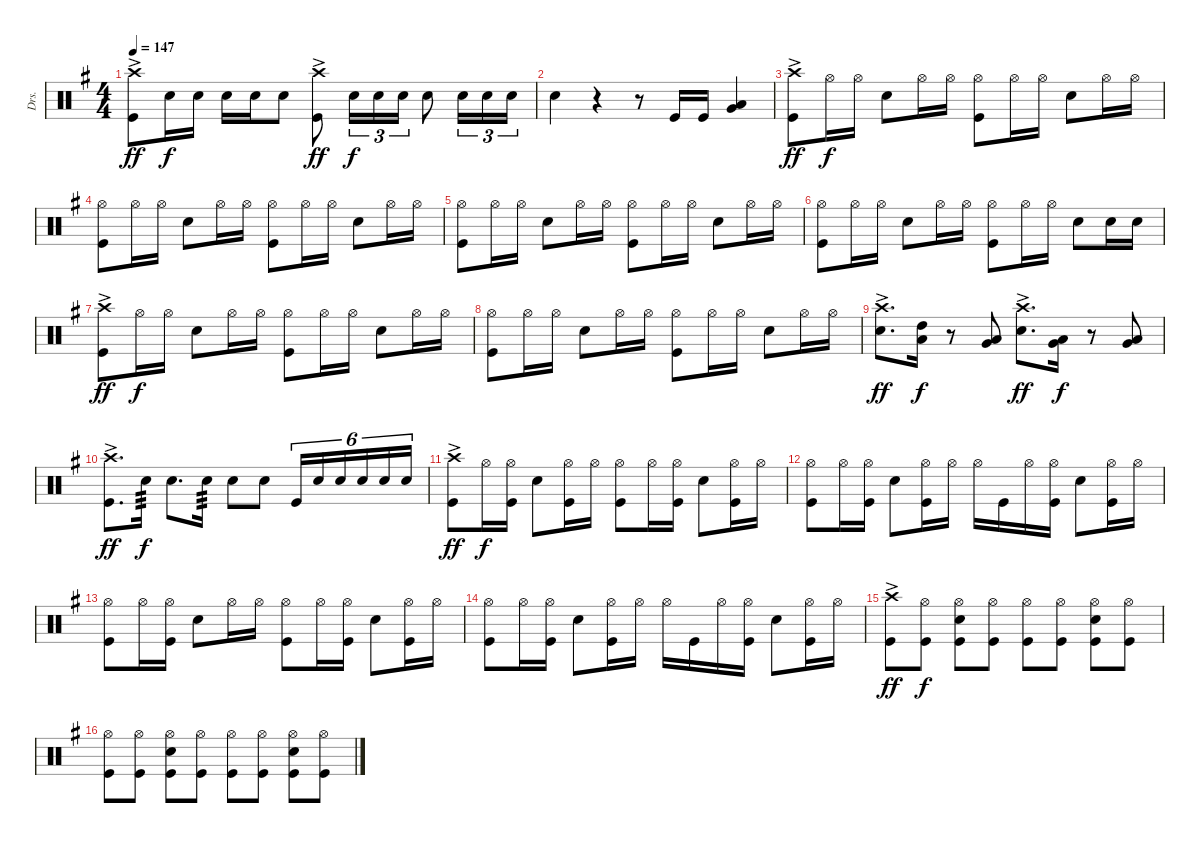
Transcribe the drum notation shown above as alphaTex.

\track ("Drs." "Drs.") {instrument percussion}
\staff {score}
\articulation defaults
\ts (4 4)
\tempo 147
\clef neutral
\ks g
("Crash high (hit)"{ac} "Kick (hit)").8{dy ff} "Snare (hit) 2".16{dy f} "Snare (hit) 2".16 "Snare (hit) 2".16 "Snare (hit) 2".16 "Snare (hit) 2".8 ("Crash high (hit)"{ac} "Kick (hit)").8{dy ff} "Snare (hit) 2".16{tu (3 2) dy f} "Snare (hit) 2".16{tu (3 2)} "Snare (hit) 2".16{tu (3 2)} "Snare (hit) 2".8 "Snare (hit) 2".16{tu (3 2)} "Snare (hit) 2".16{tu (3 2)} "Snare (hit) 2".16{tu (3 2)} |
"Snare (hit) 2".4 r.4 r.8 "Kick (hit)".16 "Kick (hit)".16 ("Low Tom (hit)" "Very Low Tom (hit)").4 |
("Crash high (hit)"{ac} "Kick (hit)").8{dy ff} "Hi-Hat (open)".16{dy f} "Hi-Hat (open)".16 "Snare (hit) 2".8 "Hi-Hat (open)".16 "Hi-Hat (open)".16 ("Hi-Hat (open)" "Kick (hit)").8 "Hi-Hat (open)".16 "Hi-Hat (open)".16 "Snare (hit) 2".8 "Hi-Hat (open)".16 "Hi-Hat (open)".16 |
("Hi-Hat (open)" "Kick (hit)").8 "Hi-Hat (open)".16 "Hi-Hat (open)".16 "Snare (hit) 2".8 "Hi-Hat (open)".16 "Hi-Hat (open)".16 ("Hi-Hat (open)" "Kick (hit)").8 "Hi-Hat (open)".16 "Hi-Hat (open)".16 "Snare (hit) 2".8 "Hi-Hat (open)".16 "Hi-Hat (open)".16 |
("Hi-Hat (open)" "Kick (hit)").8 "Hi-Hat (open)".16 "Hi-Hat (open)".16 "Snare (hit) 2".8 "Hi-Hat (open)".16 "Hi-Hat (open)".16 ("Hi-Hat (open)" "Kick (hit)").8 "Hi-Hat (open)".16 "Hi-Hat (open)".16 "Snare (hit) 2".8 "Hi-Hat (open)".16 "Hi-Hat (open)".16 |
("Hi-Hat (open)" "Kick (hit)").8 "Hi-Hat (open)".16 "Hi-Hat (open)".16 "Snare (hit) 2".8 "Hi-Hat (open)".16 "Hi-Hat (open)".16 ("Hi-Hat (open)" "Kick (hit)").8 "Hi-Hat (open)".16 "Hi-Hat (open)".16 "Snare (hit) 2".8 "Snare (hit) 2".16 "Snare (hit) 2".16 |
("Crash high (hit)"{ac} "Kick (hit)").8{dy ff} "Hi-Hat (open)".16{dy f} "Hi-Hat (open)".16 "Snare (hit) 2".8 "Hi-Hat (open)".16 "Hi-Hat (open)".16 ("Hi-Hat (open)" "Kick (hit)").8 "Hi-Hat (open)".16 "Hi-Hat (open)".16 "Snare (hit) 2".8 "Hi-Hat (open)".16 "Hi-Hat (open)".16 |
("Hi-Hat (open)" "Kick (hit)").8 "Hi-Hat (open)".16 "Hi-Hat (open)".16 "Snare (hit) 2".8 "Hi-Hat (open)".16 "Hi-Hat (open)".16 ("Hi-Hat (open)" "Kick (hit)").8 "Hi-Hat (open)".16 "Hi-Hat (open)".16 "Snare (hit) 2".8 "Hi-Hat (open)".16 "Hi-Hat (open)".16 |
("Crash high (hit)"{ac} "Snare (hit) 2").8{d dy ff} ("High Tom (hit)" "Low Tom (hit)").16{dy f} r.8 ("Low Tom (hit)" "Very Low Tom (hit)").8 ("Crash high (hit)"{ac} "Snare (hit) 2").8{d dy ff} ("Low Tom (hit)" "Very Low Tom (hit)").16{dy f} r.8 ("Low Tom (hit)" "Very Low Tom (hit)").8 |
("Crash high (hit)"{ac} "Kick (hit)").8{d dy ff} "Snare (hit) 2".16{tp 3 dy f} "Snare (hit) 2".8{d} "Snare (hit) 2".16{tp 3} "Snare (hit) 2".8 "Snare (hit) 2".8 "Kick (hit)".16{tu (6 4)} "Snare (hit) 2".16{tu (6 4)} "Snare (hit) 2".16{tu (6 4)} "Snare (hit) 2".16{tu (6 4)} "Snare (hit) 2".16{tu (6 4)} "Snare (hit) 2".16{tu (6 4)} |
("Crash high (hit)"{ac} "Kick (hit)").8{dy ff} "Hi-Hat (open)".16{dy f} ("Hi-Hat (open)" "Kick (hit)").16 "Snare (hit) 2".8 ("Hi-Hat (open)" "Kick (hit)").16 "Hi-Hat (open)".16 ("Hi-Hat (open)" "Kick (hit)").8 "Hi-Hat (open)".16 ("Hi-Hat (open)" "Kick (hit)").16 "Snare (hit) 2".8 ("Hi-Hat (open)" "Kick (hit)").16 "Hi-Hat (open)".16 |
("Hi-Hat (open)" "Kick (hit)").8 "Hi-Hat (open)".16 ("Hi-Hat (open)" "Kick (hit)").16 "Snare (hit) 2".8 ("Hi-Hat (open)" "Kick (hit)").16 "Hi-Hat (open)".16 "Hi-Hat (open)".16 "Kick (hit)".16 "Hi-Hat (open)".16 ("Hi-Hat (open)" "Kick (hit)").16 "Snare (hit) 2".8 ("Hi-Hat (open)" "Kick (hit)").16 "Hi-Hat (open)".16 |
("Hi-Hat (open)" "Kick (hit)").8 "Hi-Hat (open)".16 ("Hi-Hat (open)" "Kick (hit)").16 "Snare (hit) 2".8 "Hi-Hat (open)".16 "Hi-Hat (open)".16 ("Hi-Hat (open)" "Kick (hit)").8 "Hi-Hat (open)".16 ("Hi-Hat (open)" "Kick (hit)").16 "Snare (hit) 2".8 ("Hi-Hat (open)" "Kick (hit)").16 "Hi-Hat (open)".16 |
("Hi-Hat (open)" "Kick (hit)").8 "Hi-Hat (open)".16 ("Hi-Hat (open)" "Kick (hit)").16 "Snare (hit) 2".8 ("Hi-Hat (open)" "Kick (hit)").16 "Hi-Hat (open)".16 "Hi-Hat (open)".16 "Kick (hit)".16 "Hi-Hat (open)".16 ("Hi-Hat (open)" "Kick (hit)").16 "Snare (hit) 2".8 ("Hi-Hat (open)" "Kick (hit)").16 "Hi-Hat (open)".16 |
("Crash high (hit)"{ac} "Kick (hit)").8{dy ff} ("Hi-Hat (open)" "Kick (hit)").8{dy f} ("Hi-Hat (open)" "Snare (hit) 2" "Kick (hit)").8 ("Hi-Hat (open)" "Kick (hit)").8 ("Hi-Hat (open)" "Kick (hit)").8 ("Hi-Hat (open)" "Kick (hit)").8 ("Hi-Hat (open)" "Snare (hit) 2" "Kick (hit)").8 ("Hi-Hat (open)" "Kick (hit)").8 |
("Hi-Hat (open)" "Kick (hit)").8 ("Hi-Hat (open)" "Kick (hit)").8 ("Hi-Hat (open)" "Snare (hit) 2" "Kick (hit)").8 ("Hi-Hat (open)" "Kick (hit)").8 ("Hi-Hat (open)" "Kick (hit)").8 ("Hi-Hat (open)" "Kick (hit)").8 ("Hi-Hat (open)" "Snare (hit) 2" "Kick (hit)").8 ("Hi-Hat (open)" "Kick (hit)").8
